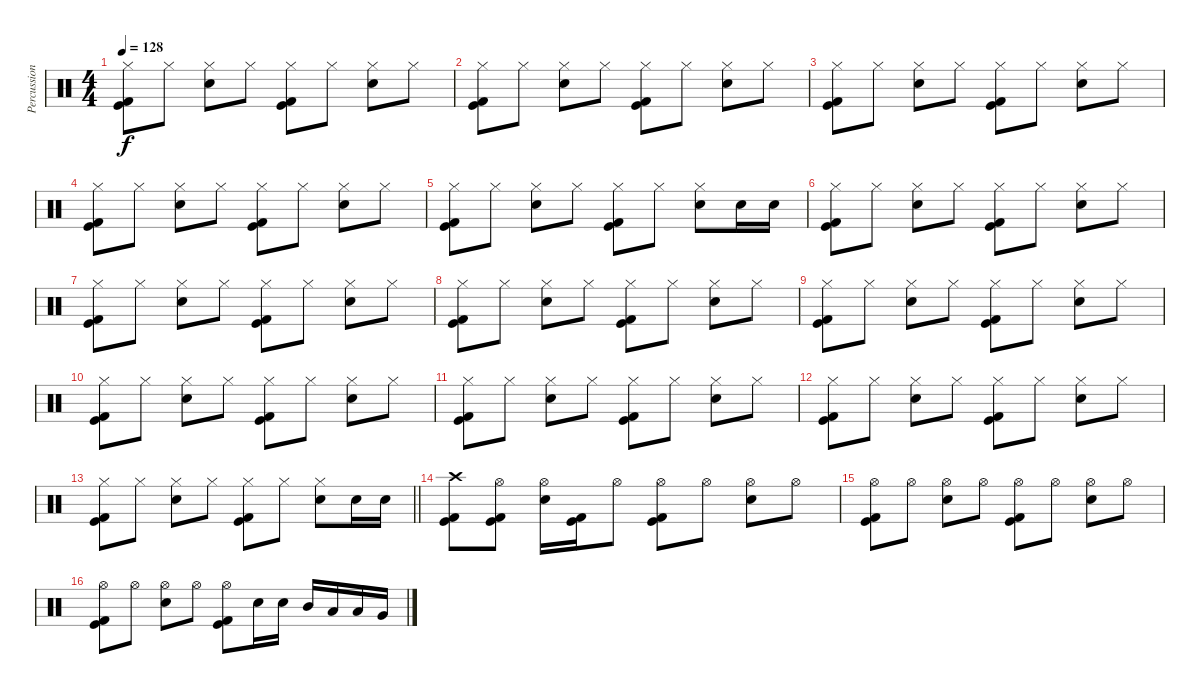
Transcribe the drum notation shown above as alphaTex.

\track ("Percussion" "Percussion") {instrument percussion}
\staff {score}
\articulation defaults
\ts (4 4)
\tempo 128
\clef neutral
\ks c
("Hi-Hat (closed)" "Kick (hit)" "Kick (hit) 2").8{dy f} "Hi-Hat (closed)".8 ("Hi-Hat (closed)" "Electric Snare (hit)").8 "Hi-Hat (closed)".8 ("Hi-Hat (closed)" "Kick (hit)" "Kick (hit) 2").8 "Hi-Hat (closed)".8 ("Hi-Hat (closed)" "Electric Snare (hit)").8 "Hi-Hat (closed)".8 |
("Hi-Hat (closed)" "Kick (hit)" "Kick (hit) 2").8 "Hi-Hat (closed)".8 ("Hi-Hat (closed)" "Electric Snare (hit)").8 "Hi-Hat (closed)".8 ("Hi-Hat (closed)" "Kick (hit)" "Kick (hit) 2").8 "Hi-Hat (closed)".8 ("Hi-Hat (closed)" "Electric Snare (hit)").8 "Hi-Hat (closed)".8 |
("Hi-Hat (closed)" "Kick (hit)" "Kick (hit) 2").8 "Hi-Hat (closed)".8 ("Hi-Hat (closed)" "Electric Snare (hit)").8 "Hi-Hat (closed)".8 ("Hi-Hat (closed)" "Kick (hit)" "Kick (hit) 2").8 "Hi-Hat (closed)".8 ("Hi-Hat (closed)" "Electric Snare (hit)").8 "Hi-Hat (closed)".8 |
("Hi-Hat (closed)" "Kick (hit)" "Kick (hit) 2").8 "Hi-Hat (closed)".8 ("Hi-Hat (closed)" "Electric Snare (hit)").8 "Hi-Hat (closed)".8 ("Hi-Hat (closed)" "Kick (hit)" "Kick (hit) 2").8 "Hi-Hat (closed)".8 ("Hi-Hat (closed)" "Electric Snare (hit)").8 "Hi-Hat (closed)".8 |
("Hi-Hat (closed)" "Kick (hit)" "Kick (hit) 2").8 "Hi-Hat (closed)".8 ("Hi-Hat (closed)" "Electric Snare (hit)").8 "Hi-Hat (closed)".8 ("Hi-Hat (closed)" "Kick (hit)" "Kick (hit) 2").8 "Hi-Hat (closed)".8 ("Hi-Hat (closed)" "Electric Snare (hit)").8 "Electric Snare (hit)".16 "Electric Snare (hit)".16 |
("Hi-Hat (closed)" "Kick (hit)" "Kick (hit) 2").8 "Hi-Hat (closed)".8 ("Hi-Hat (closed)" "Electric Snare (hit)").8 "Hi-Hat (closed)".8 ("Hi-Hat (closed)" "Kick (hit)" "Kick (hit) 2").8 "Hi-Hat (closed)".8 ("Hi-Hat (closed)" "Electric Snare (hit)").8 "Hi-Hat (closed)".8 |
("Hi-Hat (closed)" "Kick (hit)" "Kick (hit) 2").8 "Hi-Hat (closed)".8 ("Hi-Hat (closed)" "Electric Snare (hit)").8 "Hi-Hat (closed)".8 ("Hi-Hat (closed)" "Kick (hit)" "Kick (hit) 2").8 "Hi-Hat (closed)".8 ("Hi-Hat (closed)" "Electric Snare (hit)").8 "Hi-Hat (closed)".8 |
("Hi-Hat (closed)" "Kick (hit)" "Kick (hit) 2").8 "Hi-Hat (closed)".8 ("Hi-Hat (closed)" "Electric Snare (hit)").8 "Hi-Hat (closed)".8 ("Hi-Hat (closed)" "Kick (hit)" "Kick (hit) 2").8 "Hi-Hat (closed)".8 ("Hi-Hat (closed)" "Electric Snare (hit)").8 "Hi-Hat (closed)".8 |
("Hi-Hat (closed)" "Kick (hit)" "Kick (hit) 2").8 "Hi-Hat (closed)".8 ("Hi-Hat (closed)" "Electric Snare (hit)").8 "Hi-Hat (closed)".8 ("Hi-Hat (closed)" "Kick (hit)" "Kick (hit) 2").8 "Hi-Hat (closed)".8 ("Hi-Hat (closed)" "Electric Snare (hit)").8 "Hi-Hat (closed)".8 |
("Hi-Hat (closed)" "Kick (hit)" "Kick (hit) 2").8 "Hi-Hat (closed)".8 ("Hi-Hat (closed)" "Electric Snare (hit)").8 "Hi-Hat (closed)".8 ("Hi-Hat (closed)" "Kick (hit)" "Kick (hit) 2").8 "Hi-Hat (closed)".8 ("Hi-Hat (closed)" "Electric Snare (hit)").8 "Hi-Hat (closed)".8 |
("Hi-Hat (closed)" "Kick (hit)" "Kick (hit) 2").8 "Hi-Hat (closed)".8 ("Hi-Hat (closed)" "Electric Snare (hit)").8 "Hi-Hat (closed)".8 ("Hi-Hat (closed)" "Kick (hit)" "Kick (hit) 2").8 "Hi-Hat (closed)".8 ("Hi-Hat (closed)" "Electric Snare (hit)").8 "Hi-Hat (closed)".8 |
("Hi-Hat (closed)" "Kick (hit)" "Kick (hit) 2").8 "Hi-Hat (closed)".8 ("Hi-Hat (closed)" "Electric Snare (hit)").8 "Hi-Hat (closed)".8 ("Hi-Hat (closed)" "Kick (hit)" "Kick (hit) 2").8 "Hi-Hat (closed)".8 ("Hi-Hat (closed)" "Electric Snare (hit)").8 "Hi-Hat (closed)".8 |
\barLineRight lightlight
("Hi-Hat (closed)" "Kick (hit)" "Kick (hit) 2").8 "Hi-Hat (closed)".8 ("Hi-Hat (closed)" "Electric Snare (hit)").8 "Hi-Hat (closed)".8 ("Hi-Hat (closed)" "Kick (hit)" "Kick (hit) 2").8 "Hi-Hat (closed)".8 ("Hi-Hat (closed)" "Electric Snare (hit)").8 "Electric Snare (hit)".16 "Electric Snare (hit)".16 |
\section ("" "")
("Crash high (hit)" "Kick (hit)" "Kick (hit) 2").8 ("Hi-Hat (open)" "Kick (hit)" "Kick (hit) 2").8 ("Hi-Hat (open)" "Electric Snare (hit)").16 ("Kick (hit)" "Kick (hit) 2").16 "Hi-Hat (open)".8 ("Hi-Hat (open)" "Kick (hit)" "Kick (hit) 2").8 "Hi-Hat (open)".8 ("Hi-Hat (open)" "Electric Snare (hit)").8 "Hi-Hat (open)".8 |
("Hi-Hat (open)" "Kick (hit)" "Kick (hit) 2").8 "Hi-Hat (open)".8 ("Hi-Hat (open)" "Electric Snare (hit)").8 "Hi-Hat (open)".8 ("Hi-Hat (open)" "Kick (hit)" "Kick (hit) 2").8 "Hi-Hat (open)".8 ("Hi-Hat (open)" "Electric Snare (hit)").8 "Hi-Hat (open)".8 |
("Hi-Hat (open)" "Kick (hit)" "Kick (hit) 2").8 "Hi-Hat (open)".8 ("Hi-Hat (open)" "Electric Snare (hit)").8 "Hi-Hat (open)".8 ("Hi-Hat (open)" "Kick (hit)" "Kick (hit) 2").8 "Electric Snare (hit)".16 "Electric Snare (hit)".16 "Mid Tom (hit)".16 "Low Tom (hit)".16 "Low Tom (hit)".16 "Very Low Tom (hit)".16
